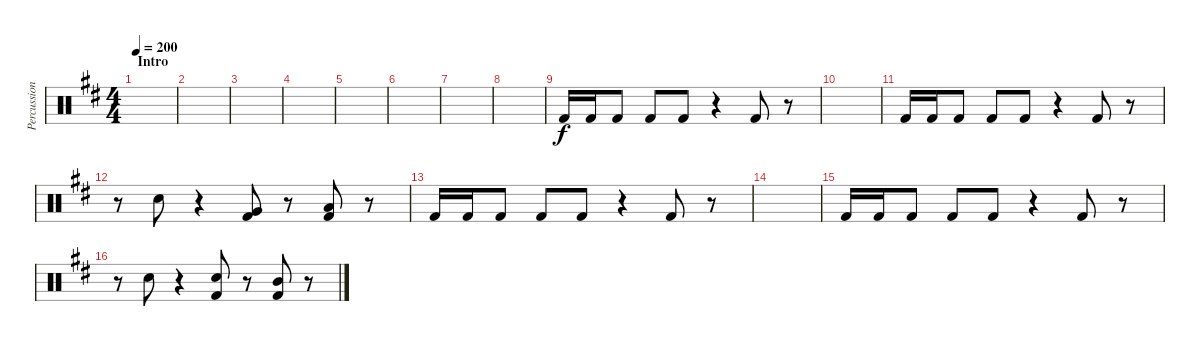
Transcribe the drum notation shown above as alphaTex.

\track ("Percussion" "Percussion") {instrument percussion}
\staff {score}
\articulation defaults
\ts (4 4)
\section ("" "Intro")
\tempo 200
\clef neutral
\ks d
|
|
|
|
|
|
|
|
"Kick (hit) 2".16 "Kick (hit) 2".16 "Kick (hit) 2".8 "Kick (hit) 2".8 "Kick (hit) 2".8 r.4 "Kick (hit) 2".8 r.8 |
|
"Kick (hit) 2".16 "Kick (hit) 2".16 "Kick (hit) 2".8 "Kick (hit) 2".8 "Kick (hit) 2".8 r.4 "Kick (hit) 2".8 r.8 |
r.8 "Snare (hit) 2".8 r.4 ("Very Low Tom (hit)" "Kick (hit) 2").8 r.8 ("Low Floor Tom (hit)" "Kick (hit) 2").8 r.8 |
"Kick (hit) 2".16 "Kick (hit) 2".16 "Kick (hit) 2".8 "Kick (hit) 2".8 "Kick (hit) 2".8 r.4 "Kick (hit) 2".8 r.8 |
|
"Kick (hit) 2".16 "Kick (hit) 2".16 "Kick (hit) 2".8 "Kick (hit) 2".8 "Kick (hit) 2".8 r.4 "Kick (hit) 2".8 r.8 |
r.8 "Snare (hit) 2".8 r.4 ("Snare (hit) 2" "Kick (hit) 2").8 r.8 ("Mid Tom (hit)" "Kick (hit) 2").8 r.8
